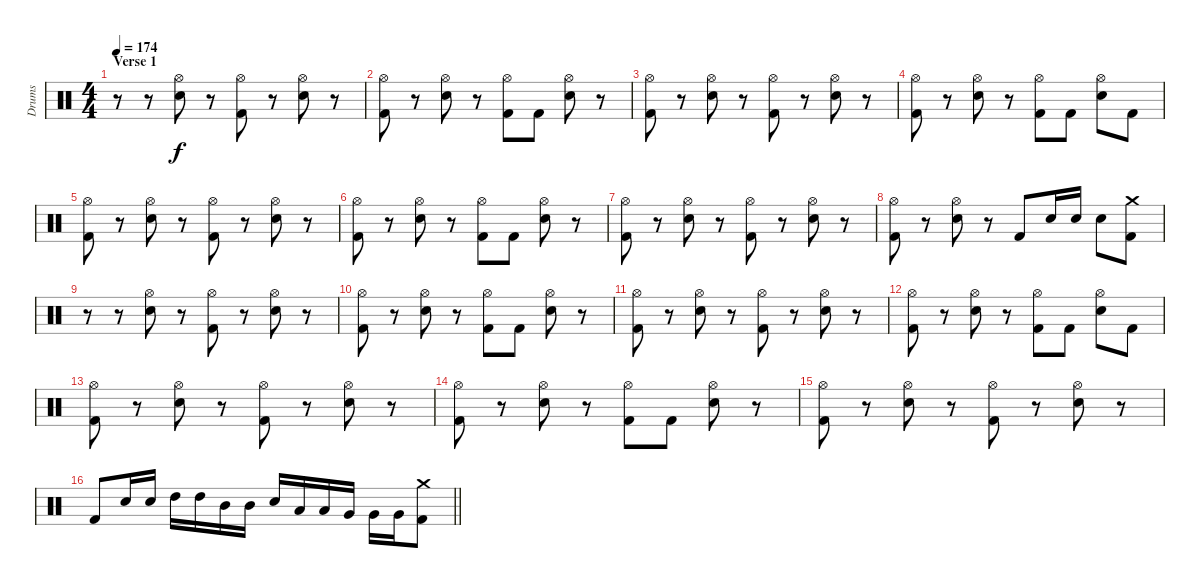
\track ("Drums" "Drums") {instrument percussion}
\staff {score}
\articulation defaults
\ts (4 4)
\section ("" "Verse 1")
\tempo 174
\clef neutral
\ks c
r.8{dy f} r.8 ("Hi-Hat (open)" "Electric Snare (hit)").8 r.8 ("Hi-Hat (open)" "Kick (hit) 2").8 r.8 ("Hi-Hat (open)" "Electric Snare (hit)").8 r.8 |
("Hi-Hat (open)" "Kick (hit) 2").8 r.8 ("Hi-Hat (open)" "Electric Snare (hit)").8 r.8 ("Hi-Hat (open)" "Kick (hit) 2").8 "Kick (hit) 2".8 ("Hi-Hat (open)" "Electric Snare (hit)").8 r.8 |
("Hi-Hat (open)" "Kick (hit) 2").8 r.8 ("Hi-Hat (open)" "Electric Snare (hit)").8 r.8 ("Hi-Hat (open)" "Kick (hit) 2").8 r.8 ("Hi-Hat (open)" "Electric Snare (hit)").8 r.8 |
("Hi-Hat (open)" "Kick (hit) 2").8 r.8 ("Hi-Hat (open)" "Electric Snare (hit)").8 r.8 ("Hi-Hat (open)" "Kick (hit) 2").8 "Kick (hit) 2".8 ("Hi-Hat (open)" "Electric Snare (hit)").8 "Kick (hit) 2".8 |
("Hi-Hat (open)" "Kick (hit) 2").8 r.8 ("Hi-Hat (open)" "Electric Snare (hit)").8 r.8 ("Hi-Hat (open)" "Kick (hit) 2").8 r.8 ("Hi-Hat (open)" "Electric Snare (hit)").8 r.8 |
("Hi-Hat (open)" "Kick (hit) 2").8 r.8 ("Hi-Hat (open)" "Electric Snare (hit)").8 r.8 ("Hi-Hat (open)" "Kick (hit) 2").8 "Kick (hit) 2".8 ("Hi-Hat (open)" "Electric Snare (hit)").8 r.8 |
("Hi-Hat (open)" "Kick (hit) 2").8 r.8 ("Hi-Hat (open)" "Electric Snare (hit)").8 r.8 ("Hi-Hat (open)" "Kick (hit) 2").8 r.8 ("Hi-Hat (open)" "Electric Snare (hit)").8 r.8 |
("Hi-Hat (open)" "Kick (hit) 2").8 r.8 ("Hi-Hat (open)" "Electric Snare (hit)").8 r.8 "Kick (hit) 2".8 "Electric Snare (hit)".16 "Electric Snare (hit)".16 "Electric Snare (hit)".8 ("Crash medium (hit)" "Kick (hit) 2").8 |
r.8 r.8 ("Hi-Hat (open)" "Electric Snare (hit)").8 r.8 ("Hi-Hat (open)" "Kick (hit) 2").8 r.8 ("Hi-Hat (open)" "Electric Snare (hit)").8 r.8 |
("Hi-Hat (open)" "Kick (hit) 2").8 r.8 ("Hi-Hat (open)" "Electric Snare (hit)").8 r.8 ("Hi-Hat (open)" "Kick (hit) 2").8 "Kick (hit) 2".8 ("Hi-Hat (open)" "Electric Snare (hit)").8 r.8 |
("Hi-Hat (open)" "Kick (hit) 2").8 r.8 ("Hi-Hat (open)" "Electric Snare (hit)").8 r.8 ("Hi-Hat (open)" "Kick (hit) 2").8 r.8 ("Hi-Hat (open)" "Electric Snare (hit)").8 r.8 |
("Hi-Hat (open)" "Kick (hit) 2").8 r.8 ("Hi-Hat (open)" "Electric Snare (hit)").8 r.8 ("Hi-Hat (open)" "Kick (hit) 2").8 "Kick (hit) 2".8 ("Hi-Hat (open)" "Electric Snare (hit)").8 "Kick (hit) 2".8 |
("Hi-Hat (open)" "Kick (hit) 2").8 r.8 ("Hi-Hat (open)" "Electric Snare (hit)").8 r.8 ("Hi-Hat (open)" "Kick (hit) 2").8 r.8 ("Hi-Hat (open)" "Electric Snare (hit)").8 r.8 |
("Hi-Hat (open)" "Kick (hit) 2").8 r.8 ("Hi-Hat (open)" "Electric Snare (hit)").8 r.8 ("Hi-Hat (open)" "Kick (hit) 2").8 "Kick (hit) 2".8 ("Hi-Hat (open)" "Electric Snare (hit)").8 r.8 |
("Hi-Hat (open)" "Kick (hit) 2").8 r.8 ("Hi-Hat (open)" "Electric Snare (hit)").8 r.8 ("Hi-Hat (open)" "Kick (hit) 2").8 r.8 ("Hi-Hat (open)" "Electric Snare (hit)").8 r.8 |
\barLineRight lightlight "Kick (hit) 2".8 "Electric Snare (hit)".16 "Electric Snare (hit)".16 "High Tom (hit)".16 "High Tom (hit)".16 "Mid Tom (hit)".16 "Mid Tom (hit)".16 "Electric Snare (hit)".16 "Low Tom (hit)".16 "Low Tom (hit)".16 "Very Low Tom (hit)".16 "Very Low Tom (hit)".16 "Very Low Tom (hit)".16
("Crash medium (hit)" "Kick (hit) 2").8
